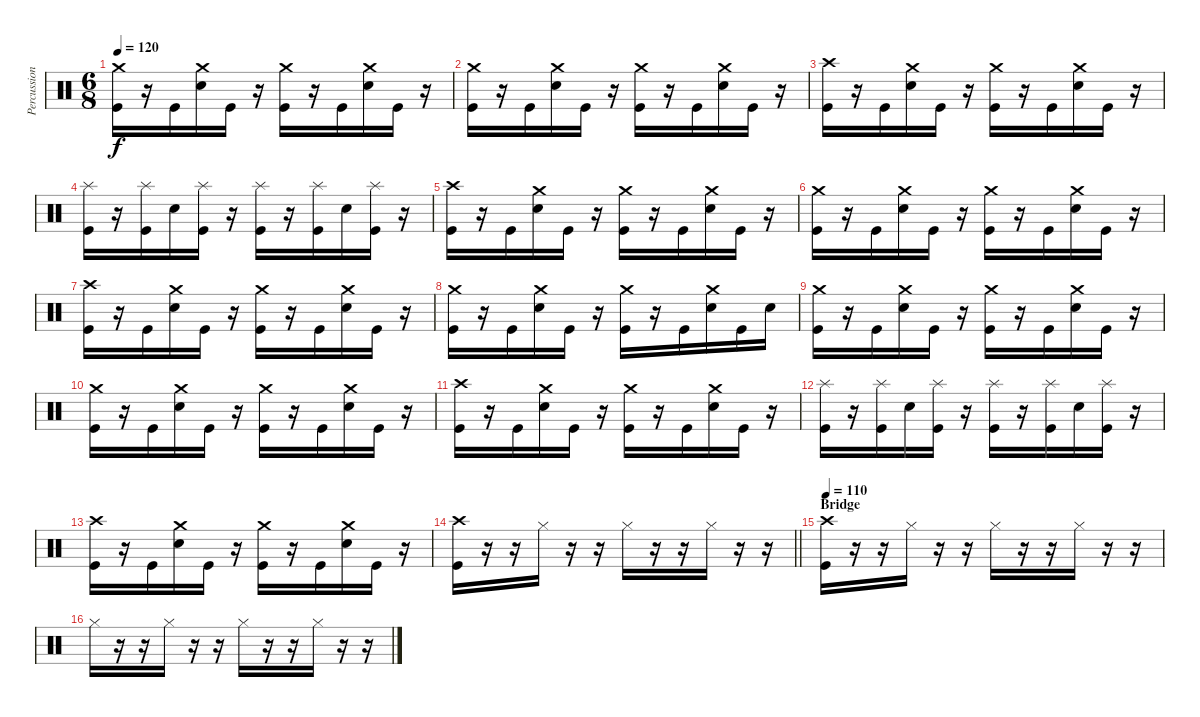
\track ("Percussion" "Percussion") {instrument percussion}
\staff {score}
\articulation defaults
\ts (6 8)
\tempo 120
\clef neutral
\ks c
("Crash medium (hit)" "Kick (hit)").16{dy f} r.16 "Kick (hit)".16 ("Crash medium (hit)" "Snare (hit) 2").16 "Kick (hit)".16 r.16 ("Crash medium (hit)" "Kick (hit)").16 r.16 "Kick (hit)".16 ("Crash medium (hit)" "Snare (hit) 2").16 "Kick (hit)".16 r.16 |
("Crash medium (hit)" "Kick (hit)").16 r.16 "Kick (hit)".16 ("Crash medium (hit)" "Snare (hit) 2").16 "Kick (hit)".16 r.16 ("Crash medium (hit)" "Kick (hit)").16 r.16 "Kick (hit)".16 ("Crash medium (hit)" "Snare (hit) 2").16 "Kick (hit)".16 r.16 |
("Crash high (hit)" "Kick (hit)").16 r.16 "Kick (hit)".16 ("Crash medium (hit)" "Snare (hit) 2").16 "Kick (hit)".16 r.16 ("Crash medium (hit)" "Kick (hit)").16 r.16 "Kick (hit)".16 ("Crash medium (hit)" "Snare (hit) 2").16 "Kick (hit)".16 r.16 |
("Splash (hit)" "Kick (hit)").16 r.16 ("Splash (hit)" "Kick (hit)").16 "Snare (hit) 2".16 ("Splash (hit)" "Kick (hit)").16 r.16 ("Splash (hit)" "Kick (hit)").16 r.16 ("Splash (hit)" "Kick (hit)").16 "Snare (hit) 2".16 ("Splash (hit)" "Kick (hit)").16 r.16 |
("Crash high (hit)" "Kick (hit)").16 r.16 "Kick (hit)".16 ("Crash medium (hit)" "Snare (hit) 2").16 "Kick (hit)".16 r.16 ("Crash medium (hit)" "Kick (hit)").16 r.16 "Kick (hit)".16 ("Crash medium (hit)" "Snare (hit) 2").16 "Kick (hit)".16 r.16 |
("Crash medium (hit)" "Kick (hit)").16 r.16 "Kick (hit)".16 ("Crash medium (hit)" "Snare (hit) 2").16 "Kick (hit)".16 r.16 ("Crash medium (hit)" "Kick (hit)").16 r.16 "Kick (hit)".16 ("Crash medium (hit)" "Snare (hit) 2").16 "Kick (hit)".16 r.16 |
("Crash high (hit)" "Kick (hit)").16 r.16 "Kick (hit)".16 ("Crash medium (hit)" "Snare (hit) 2").16 "Kick (hit)".16 r.16 ("Crash medium (hit)" "Kick (hit)").16 r.16 "Kick (hit)".16 ("Crash medium (hit)" "Snare (hit) 2").16 "Kick (hit)".16 r.16 |
("Crash medium (hit)" "Kick (hit)").16 r.16 "Kick (hit)".16 ("Crash medium (hit)" "Snare (hit) 2").16 "Kick (hit)".16 r.16 ("Crash medium (hit)" "Kick (hit)").16 r.16 "Kick (hit)".16 ("Crash medium (hit)" "Snare (hit) 2").16 "Kick (hit)".16 "Snare (hit) 2".16 |
("Crash medium (hit)" "Kick (hit)").16 r.16 "Kick (hit)".16 ("Crash medium (hit)" "Snare (hit) 2").16 "Kick (hit)".16 r.16 ("Crash medium (hit)" "Kick (hit)").16 r.16 "Kick (hit)".16 ("Crash medium (hit)" "Snare (hit) 2").16 "Kick (hit)".16 r.16 |
("Crash medium (hit)" "Kick (hit)").16 r.16 "Kick (hit)".16 ("Crash medium (hit)" "Snare (hit) 2").16 "Kick (hit)".16 r.16 ("Crash medium (hit)" "Kick (hit)").16 r.16 "Kick (hit)".16 ("Crash medium (hit)" "Snare (hit) 2").16 "Kick (hit)".16 r.16 |
("Crash high (hit)" "Kick (hit)").16 r.16 "Kick (hit)".16 ("Crash medium (hit)" "Snare (hit) 2").16 "Kick (hit)".16 r.16 ("Crash medium (hit)" "Kick (hit)").16 r.16 "Kick (hit)".16 ("Crash medium (hit)" "Snare (hit) 2").16 "Kick (hit)".16 r.16 |
("Splash (hit)" "Kick (hit)").16 r.16 ("Splash (hit)" "Kick (hit)").16 "Snare (hit) 2".16 ("Splash (hit)" "Kick (hit)").16 r.16 ("Splash (hit)" "Kick (hit)").16 r.16 ("Splash (hit)" "Kick (hit)").16 "Snare (hit) 2".16 ("Splash (hit)" "Kick (hit)").16 r.16 |
("Crash high (hit)" "Kick (hit)").16 r.16 "Kick (hit)".16 ("Crash medium (hit)" "Snare (hit) 2").16 "Kick (hit)".16 r.16 ("Crash medium (hit)" "Kick (hit)").16 r.16 "Kick (hit)".16 ("Crash medium (hit)" "Snare (hit) 2").16 "Kick (hit)".16 r.16 |
\barLineRight lightlight
("Crash high (hit)" "Kick (hit)").16 r.16 r.16 "Hi-Hat (closed)".16 r.16 r.16 "Hi-Hat (closed)".16 r.16 r.16 "Hi-Hat (closed)".16 r.16 r.16 |
\section ("" "Bridge")
\tempo 110
("Crash high (hit)" "Kick (hit)").16 r.16 r.16 "Hi-Hat (closed)".16 r.16 r.16 "Hi-Hat (closed)".16 r.16 r.16 "Hi-Hat (closed)".16 r.16 r.16 |
"Hi-Hat (closed)".16 r.16 r.16 "Hi-Hat (closed)".16 r.16 r.16 "Hi-Hat (closed)".16 r.16 r.16 "Hi-Hat (closed)".16 r.16 r.16
